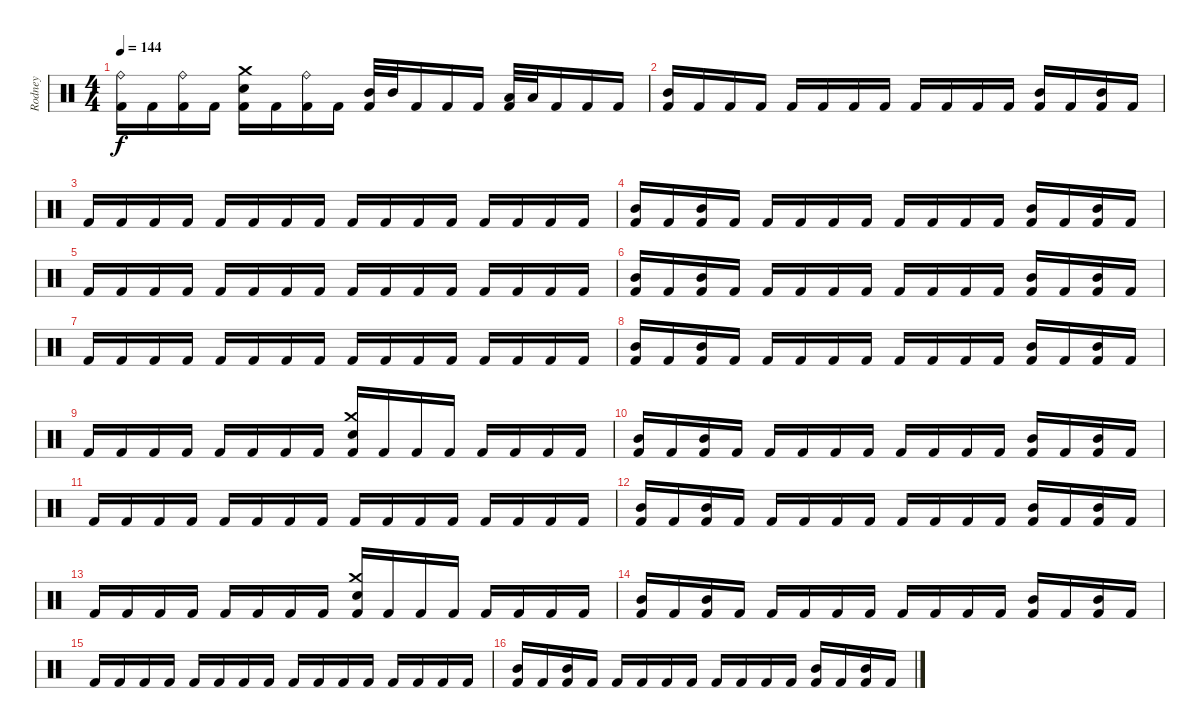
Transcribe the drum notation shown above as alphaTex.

\track ("Rodney" "Rodney") {instrument percussion}
\staff {score}
\articulation defaults
\ts (4 4)
\tempo 144
\clef neutral
\ks c
("Ride (bell)" "Kick (hit) 2").16{dy f} "Kick (hit) 2".16 ("Ride (bell)" "Kick (hit) 2").16 "Kick (hit) 2".16 ("Crash medium (hit)" "Snare (hit) 2" "Kick (hit) 2").16 "Kick (hit) 2".16 ("Ride (bell)" "Kick (hit) 2").16 "Kick (hit) 2".16 ("Mid Tom (hit)" "Kick (hit) 2").32 "Mid Tom (hit)".32 "Kick (hit) 2".16 "Kick (hit) 2".16 "Kick (hit) 2".16 ("Low Tom (hit)" "Kick (hit) 2").32 "Low Tom (hit)".32 "Kick (hit) 2".16 "Kick (hit) 2".16 "Kick (hit) 2".16 |
("Mid Tom (hit)" "Kick (hit) 2").16 "Kick (hit) 2".16 "Kick (hit) 2".16 "Kick (hit) 2".16 "Kick (hit) 2".16 "Kick (hit) 2".16 "Kick (hit) 2".16 "Kick (hit) 2".16 "Kick (hit) 2".16 "Kick (hit) 2".16 "Kick (hit) 2".16 "Kick (hit) 2".16 ("Mid Tom (hit)" "Kick (hit) 2").16 "Kick (hit) 2".16 ("Mid Tom (hit)" "Kick (hit) 2").16 "Kick (hit) 2".16 |
"Kick (hit) 2".16 "Kick (hit) 2".16 "Kick (hit) 2".16 "Kick (hit) 2".16 "Kick (hit) 2".16 "Kick (hit) 2".16 "Kick (hit) 2".16 "Kick (hit) 2".16 "Kick (hit) 2".16 "Kick (hit) 2".16 "Kick (hit) 2".16 "Kick (hit) 2".16 "Kick (hit) 2".16 "Kick (hit) 2".16 "Kick (hit) 2".16 "Kick (hit) 2".16 |
("Mid Tom (hit)" "Kick (hit) 2").16 "Kick (hit) 2".16 ("Mid Tom (hit)" "Kick (hit) 2").16 "Kick (hit) 2".16 "Kick (hit) 2".16 "Kick (hit) 2".16 "Kick (hit) 2".16 "Kick (hit) 2".16 "Kick (hit) 2".16 "Kick (hit) 2".16 "Kick (hit) 2".16 "Kick (hit) 2".16 ("Mid Tom (hit)" "Kick (hit) 2").16 "Kick (hit) 2".16 ("Mid Tom (hit)" "Kick (hit) 2").16 "Kick (hit) 2".16 |
"Kick (hit) 2".16 "Kick (hit) 2".16 "Kick (hit) 2".16 "Kick (hit) 2".16 "Kick (hit) 2".16 "Kick (hit) 2".16 "Kick (hit) 2".16 "Kick (hit) 2".16 "Kick (hit) 2".16 "Kick (hit) 2".16 "Kick (hit) 2".16 "Kick (hit) 2".16 "Kick (hit) 2".16 "Kick (hit) 2".16 "Kick (hit) 2".16 "Kick (hit) 2".16 |
("Mid Tom (hit)" "Kick (hit) 2").16 "Kick (hit) 2".16 ("Mid Tom (hit)" "Kick (hit) 2").16 "Kick (hit) 2".16 "Kick (hit) 2".16 "Kick (hit) 2".16 "Kick (hit) 2".16 "Kick (hit) 2".16 "Kick (hit) 2".16 "Kick (hit) 2".16 "Kick (hit) 2".16 "Kick (hit) 2".16 ("Mid Tom (hit)" "Kick (hit) 2").16 "Kick (hit) 2".16 ("Mid Tom (hit)" "Kick (hit) 2").16 "Kick (hit) 2".16 |
"Kick (hit) 2".16 "Kick (hit) 2".16 "Kick (hit) 2".16 "Kick (hit) 2".16 "Kick (hit) 2".16 "Kick (hit) 2".16 "Kick (hit) 2".16 "Kick (hit) 2".16 "Kick (hit) 2".16 "Kick (hit) 2".16 "Kick (hit) 2".16 "Kick (hit) 2".16 "Kick (hit) 2".16 "Kick (hit) 2".16 "Kick (hit) 2".16 "Kick (hit) 2".16 |
("Mid Tom (hit)" "Kick (hit) 2").16 "Kick (hit) 2".16 ("Mid Tom (hit)" "Kick (hit) 2").16 "Kick (hit) 2".16 "Kick (hit) 2".16 "Kick (hit) 2".16 "Kick (hit) 2".16 "Kick (hit) 2".16 "Kick (hit) 2".16 "Kick (hit) 2".16 "Kick (hit) 2".16 "Kick (hit) 2".16 ("Mid Tom (hit)" "Kick (hit) 2").16 "Kick (hit) 2".16 ("Mid Tom (hit)" "Kick (hit) 2").16 "Kick (hit) 2".16 |
"Kick (hit) 2".16 "Kick (hit) 2".16 "Kick (hit) 2".16 "Kick (hit) 2".16 "Kick (hit) 2".16 "Kick (hit) 2".16 "Kick (hit) 2".16 "Kick (hit) 2".16 ("Crash medium (hit)" "Snare (hit) 2" "Kick (hit) 2").16 "Kick (hit) 2".16 "Kick (hit) 2".16 "Kick (hit) 2".16 "Kick (hit) 2".16 "Kick (hit) 2".16 "Kick (hit) 2".16 "Kick (hit) 2".16 |
("Mid Tom (hit)" "Kick (hit) 2").16 "Kick (hit) 2".16 ("Mid Tom (hit)" "Kick (hit) 2").16 "Kick (hit) 2".16 "Kick (hit) 2".16 "Kick (hit) 2".16 "Kick (hit) 2".16 "Kick (hit) 2".16 "Kick (hit) 2".16 "Kick (hit) 2".16 "Kick (hit) 2".16 "Kick (hit) 2".16 ("Mid Tom (hit)" "Kick (hit) 2").16 "Kick (hit) 2".16 ("Mid Tom (hit)" "Kick (hit) 2").16 "Kick (hit) 2".16 |
"Kick (hit) 2".16 "Kick (hit) 2".16 "Kick (hit) 2".16 "Kick (hit) 2".16 "Kick (hit) 2".16 "Kick (hit) 2".16 "Kick (hit) 2".16 "Kick (hit) 2".16 "Kick (hit) 2".16 "Kick (hit) 2".16 "Kick (hit) 2".16 "Kick (hit) 2".16 "Kick (hit) 2".16 "Kick (hit) 2".16 "Kick (hit) 2".16 "Kick (hit) 2".16 |
("Mid Tom (hit)" "Kick (hit) 2").16 "Kick (hit) 2".16 ("Mid Tom (hit)" "Kick (hit) 2").16 "Kick (hit) 2".16 "Kick (hit) 2".16 "Kick (hit) 2".16 "Kick (hit) 2".16 "Kick (hit) 2".16 "Kick (hit) 2".16 "Kick (hit) 2".16 "Kick (hit) 2".16 "Kick (hit) 2".16 ("Mid Tom (hit)" "Kick (hit) 2").16 "Kick (hit) 2".16 ("Mid Tom (hit)" "Kick (hit) 2").16 "Kick (hit) 2".16 |
"Kick (hit) 2".16 "Kick (hit) 2".16 "Kick (hit) 2".16 "Kick (hit) 2".16 "Kick (hit) 2".16 "Kick (hit) 2".16 "Kick (hit) 2".16 "Kick (hit) 2".16 ("Crash medium (hit)" "Snare (hit) 2" "Kick (hit) 2").16 "Kick (hit) 2".16 "Kick (hit) 2".16 "Kick (hit) 2".16 "Kick (hit) 2".16 "Kick (hit) 2".16 "Kick (hit) 2".16 "Kick (hit) 2".16 |
("Mid Tom (hit)" "Kick (hit) 2").16 "Kick (hit) 2".16 ("Mid Tom (hit)" "Kick (hit) 2").16 "Kick (hit) 2".16 "Kick (hit) 2".16 "Kick (hit) 2".16 "Kick (hit) 2".16 "Kick (hit) 2".16 "Kick (hit) 2".16 "Kick (hit) 2".16 "Kick (hit) 2".16 "Kick (hit) 2".16 ("Mid Tom (hit)" "Kick (hit) 2").16 "Kick (hit) 2".16 ("Mid Tom (hit)" "Kick (hit) 2").16 "Kick (hit) 2".16 |
"Kick (hit) 2".16 "Kick (hit) 2".16 "Kick (hit) 2".16 "Kick (hit) 2".16 "Kick (hit) 2".16 "Kick (hit) 2".16 "Kick (hit) 2".16 "Kick (hit) 2".16 "Kick (hit) 2".16 "Kick (hit) 2".16 "Kick (hit) 2".16 "Kick (hit) 2".16 "Kick (hit) 2".16 "Kick (hit) 2".16 "Kick (hit) 2".16 "Kick (hit) 2".16 |
("Mid Tom (hit)" "Kick (hit) 2").16 "Kick (hit) 2".16 ("Mid Tom (hit)" "Kick (hit) 2").16 "Kick (hit) 2".16 "Kick (hit) 2".16 "Kick (hit) 2".16 "Kick (hit) 2".16 "Kick (hit) 2".16 "Kick (hit) 2".16 "Kick (hit) 2".16 "Kick (hit) 2".16 "Kick (hit) 2".16 ("Mid Tom (hit)" "Kick (hit) 2").16 "Kick (hit) 2".16 ("Mid Tom (hit)" "Kick (hit) 2").16 "Kick (hit) 2".16
